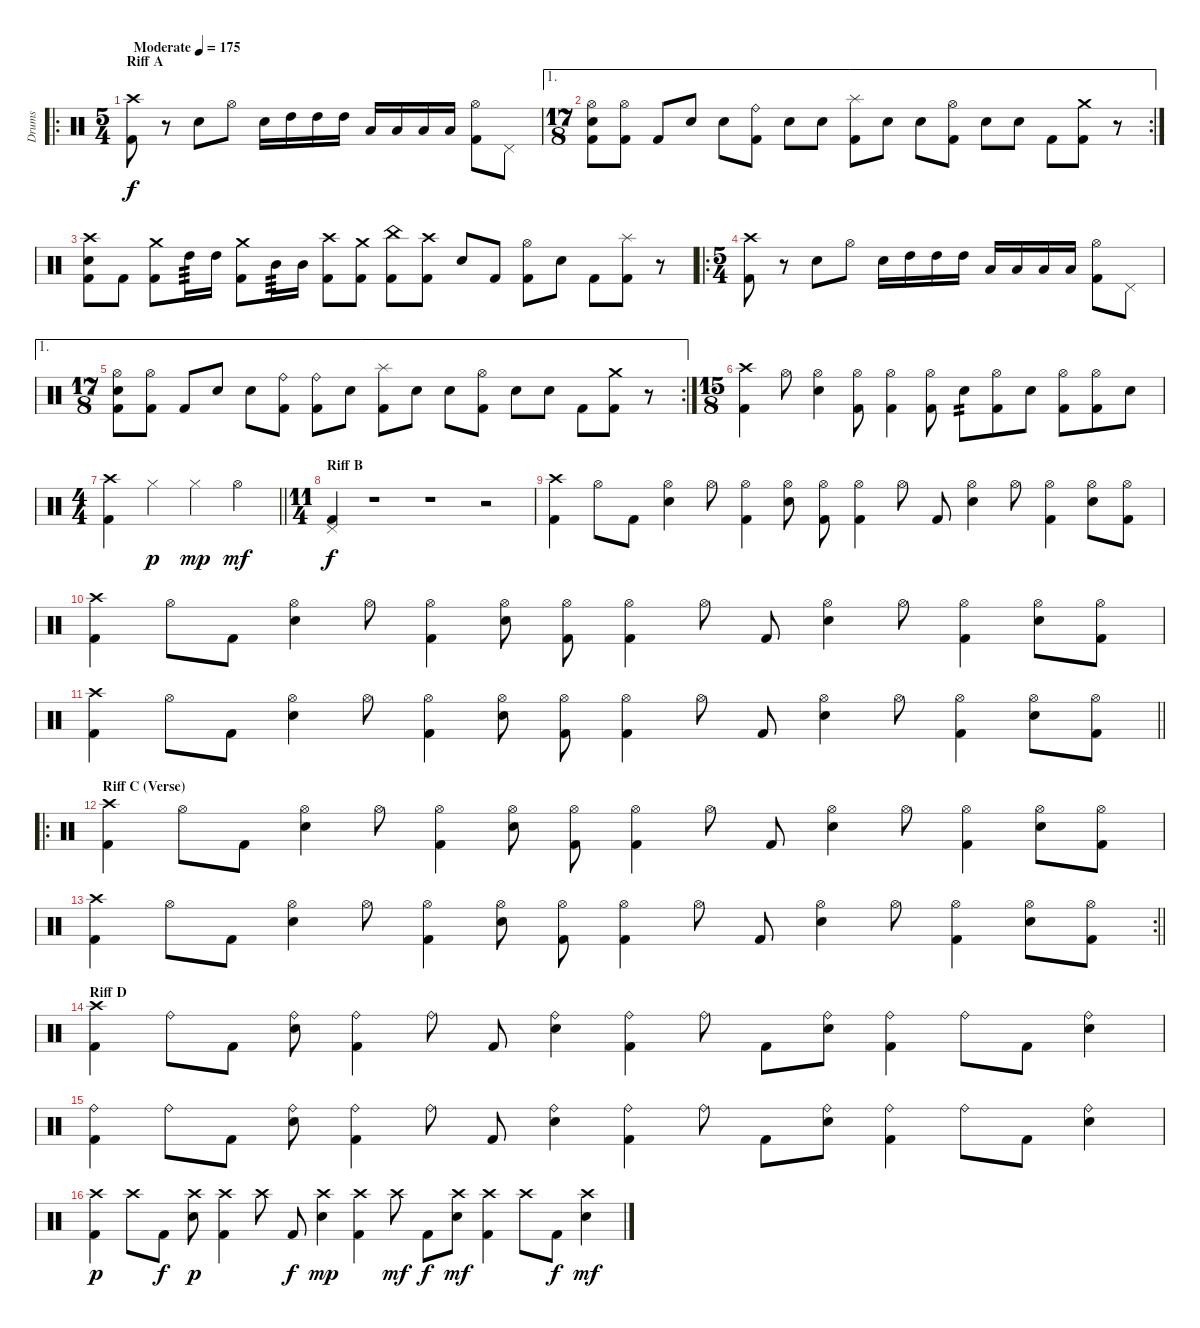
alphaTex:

\track ("Drums" "Drums") {instrument percussion}
\staff {score}
\articulation defaults
\ro
\ts (5 4)
\section ("" "Riff A")
\tempo (175 "Moderate")
\clef neutral
\ks c
("Crash high (hit)" "Kick (hit) 2").8{dy f} r.8 "Snare (hit) 2".8 "Hi-Hat (open)".8 "Snare (hit) 2".16 "High Tom (hit)".16 "High Tom (hit)".16 "High Tom (hit)".16 "Low Tom (hit)".16 "Low Tom (hit)".16 "Low Tom (hit)".16 "Low Tom (hit)".16 ("Kick (hit) 2" "Hi-Hat (open)").8 "Pedal Hi-Hat (hit)".8 |
\ae 1
\rc 2
\ts (17 8)
("Snare (hit) 2" "Hi-Hat (open)" "Kick (hit) 2").8 ("Hi-Hat (open)" "Kick (hit) 2").8 "Kick (hit) 2".8 "Snare (hit) 2".8 "Snare (hit) 2".8 ("Kick (hit) 2" "Ride (bell)").8 "Snare (hit) 2".8 "Snare (hit) 2".8 ("Kick (hit) 2" "Splash (hit)").8 "Snare (hit) 2".8 "Snare (hit) 2".8 ("Kick (hit) 2" "Hi-Hat (open)").8 "Snare (hit) 2".8 "Snare (hit) 2".8 "Kick (hit) 2".8 ("Kick (hit) 2" "Crash medium (hit)").8 r.8 |
("Snare (hit) 2" "Kick (hit) 2" "Crash high (hit)").8 "Kick (hit) 2".8 ("Kick (hit) 2" "Crash medium (hit)").8 "High Tom (hit)".16{tp 3} "High Tom (hit)".16 ("Kick (hit) 2" "Crash medium (hit)").8 "Mid Tom (hit)".16{tp 3} "Mid Tom (hit)".16 ("Kick (hit) 2" "Crash high (hit)").8 ("Kick (hit) 2" "Crash medium (hit)").8 ("Kick (hit) 2" "China (hit)").8 ("Kick (hit) 2" "Crash high (hit)").8 "Snare (hit) 2".8 "Kick (hit) 2".8 ("Kick (hit) 2" "Hi-Hat (open)").8 "Snare (hit) 2".8 "Kick (hit) 2".8 ("Kick (hit) 2" "Splash (hit)").8 r.8 |
\ro
\ts (5 4)
("Crash high (hit)" "Kick (hit) 2").8 r.8 "Snare (hit) 2".8 "Hi-Hat (open)".8 "Snare (hit) 2".16 "High Tom (hit)".16 "High Tom (hit)".16 "High Tom (hit)".16 "Low Tom (hit)".16 "Low Tom (hit)".16 "Low Tom (hit)".16 "Low Tom (hit)".16 ("Kick (hit) 2" "Hi-Hat (open)").8 "Pedal Hi-Hat (hit)".8 |
\ae 1
\rc 2
\ts (17 8)
("Snare (hit) 2" "Hi-Hat (open)" "Kick (hit) 2").8 ("Hi-Hat (open)" "Kick (hit) 2").8 "Kick (hit) 2".8 "Snare (hit) 2".8 "Snare (hit) 2".8 ("Kick (hit) 2" "Ride (bell)").8 ("Kick (hit) 2" "Ride (bell)").8 "Snare (hit) 2".8 ("Kick (hit) 2" "Splash (hit)").8 "Snare (hit) 2".8 "Snare (hit) 2".8 ("Kick (hit) 2" "Hi-Hat (open)").8 "Snare (hit) 2".8 "Snare (hit) 2".8 "Kick (hit) 2".8 ("Kick (hit) 2" "Crash medium (hit)").8 r.8 |
\ts (15 8)
("Kick (hit) 2" "Crash high (hit)").4 "Hi-Hat (open)".8 ("Hi-Hat (open)" "Snare (hit) 2").4 ("Hi-Hat (open)" "Kick (hit) 2").8 ("Kick (hit) 2" "Hi-Hat (open)").4 ("Kick (hit) 2" "Hi-Hat (open)").8 "Snare (hit) 2".8{tp 2} ("Hi-Hat (open)" "Kick (hit) 2").8 "Snare (hit) 2".8 ("Kick (hit) 2" "Hi-Hat (open)").8 ("Hi-Hat (open)" "Kick (hit) 2").8 "Snare (hit) 2".8 |
\ts (4 4)
\barLineRight lightlight
("Kick (hit) 2" "Crash high (hit)").4 "Hi-Hat (closed)".4{dy p} "Hi-Hat (closed)".4{dy mp} "Hi-Hat (open)".4{dy mf} |
\ts (11 4)
\section ("" "Riff B")
("Kick (hit) 2" "Pedal Hi-Hat (hit)").4{dy f} r.1 r.1 r.2 |
("Crash high (hit)" "Kick (hit) 2").4 "Hi-Hat (open)".8 "Kick (hit) 2".8 ("Hi-Hat (open)" "Snare (hit) 2").4 "Hi-Hat (open)".8 ("Hi-Hat (open)" "Kick (hit) 2").4 ("Hi-Hat (open)" "Snare (hit) 2").8 ("Hi-Hat (open)" "Kick (hit) 2").8 ("Hi-Hat (open)" "Kick (hit) 2").4 "Hi-Hat (open)".8 "Kick (hit) 2".8 ("Hi-Hat (open)" "Snare (hit) 2").4 "Hi-Hat (open)".8 ("Hi-Hat (open)" "Kick (hit) 2").4 ("Hi-Hat (open)" "Snare (hit) 2").8 ("Hi-Hat (open)" "Kick (hit) 2").8 |
("Crash high (hit)" "Kick (hit) 2").4 "Hi-Hat (open)".8 "Kick (hit) 2".8 ("Hi-Hat (open)" "Snare (hit) 2").4 "Hi-Hat (open)".8 ("Hi-Hat (open)" "Kick (hit) 2").4 ("Hi-Hat (open)" "Snare (hit) 2").8 ("Hi-Hat (open)" "Kick (hit) 2").8 ("Hi-Hat (open)" "Kick (hit) 2").4 "Hi-Hat (open)".8 "Kick (hit) 2".8 ("Hi-Hat (open)" "Snare (hit) 2").4 "Hi-Hat (open)".8 ("Hi-Hat (open)" "Kick (hit) 2").4 ("Hi-Hat (open)" "Snare (hit) 2").8 ("Hi-Hat (open)" "Kick (hit) 2").8 |
\barLineRight lightlight
("Crash high (hit)" "Kick (hit) 2").4 "Hi-Hat (open)".8 "Kick (hit) 2".8 ("Hi-Hat (open)" "Snare (hit) 2").4 "Hi-Hat (open)".8 ("Hi-Hat (open)" "Kick (hit) 2").4 ("Hi-Hat (open)" "Snare (hit) 2").8 ("Hi-Hat (open)" "Kick (hit) 2").8 ("Hi-Hat (open)" "Kick (hit) 2").4 "Hi-Hat (open)".8 "Kick (hit) 2".8 ("Hi-Hat (open)" "Snare (hit) 2").4 "Hi-Hat (open)".8 ("Hi-Hat (open)" "Kick (hit) 2").4 ("Hi-Hat (open)" "Snare (hit) 2").8 ("Hi-Hat (open)" "Kick (hit) 2").8 |
\ro
\section ("" "Riff C (Verse)")
("Crash high (hit)" "Kick (hit) 2").4 "Hi-Hat (open)".8 "Kick (hit) 2".8 ("Hi-Hat (open)" "Snare (hit) 2").4 "Hi-Hat (open)".8 ("Hi-Hat (open)" "Kick (hit) 2").4 ("Hi-Hat (open)" "Snare (hit) 2").8 ("Hi-Hat (open)" "Kick (hit) 2").8 ("Hi-Hat (open)" "Kick (hit) 2").4 "Hi-Hat (open)".8 "Kick (hit) 2".8 ("Hi-Hat (open)" "Snare (hit) 2").4 "Hi-Hat (open)".8 ("Hi-Hat (open)" "Kick (hit) 2").4 ("Hi-Hat (open)" "Snare (hit) 2").8 ("Hi-Hat (open)" "Kick (hit) 2").8 |
\rc 2
\barLineRight lightlight
("Crash high (hit)" "Kick (hit) 2").4 "Hi-Hat (open)".8 "Kick (hit) 2".8 ("Hi-Hat (open)" "Snare (hit) 2").4 "Hi-Hat (open)".8 ("Hi-Hat (open)" "Kick (hit) 2").4 ("Hi-Hat (open)" "Snare (hit) 2").8 ("Hi-Hat (open)" "Kick (hit) 2").8 ("Hi-Hat (open)" "Kick (hit) 2").4 "Hi-Hat (open)".8 "Kick (hit) 2".8 ("Hi-Hat (open)" "Snare (hit) 2").4 "Hi-Hat (open)".8 ("Hi-Hat (open)" "Kick (hit) 2").4 ("Hi-Hat (open)" "Snare (hit) 2").8 ("Hi-Hat (open)" "Kick (hit) 2").8 |
\section ("" "Riff D")
("Crash high (hit)" "Kick (hit) 2").4 "Ride (bell)".8 "Kick (hit) 2".8 ("Ride (bell)" "Snare (hit) 2").8 ("Ride (bell)" "Kick (hit) 2").4 "Ride (bell)".8 "Kick (hit) 2".8 ("Ride (bell)" "Snare (hit) 2").4 ("Ride (bell)" "Kick (hit) 2").4 "Ride (bell)".8 "Kick (hit) 2".8 ("Ride (bell)" "Snare (hit) 2").8 ("Ride (bell)" "Kick (hit) 2").4 "Ride (bell)".8 "Kick (hit) 2".8 ("Ride (bell)" "Snare (hit) 2").4 |
("Ride (bell)" "Kick (hit) 2").4 "Ride (bell)".8 "Kick (hit) 2".8 ("Ride (bell)" "Snare (hit) 2").8 ("Ride (bell)" "Kick (hit) 2").4 "Ride (bell)".8 "Kick (hit) 2".8 ("Ride (bell)" "Snare (hit) 2").4 ("Ride (bell)" "Kick (hit) 2").4 "Ride (bell)".8 "Kick (hit) 2".8 ("Ride (bell)" "Snare (hit) 2").8 ("Ride (bell)" "Kick (hit) 2").4 "Ride (bell)".8 "Kick (hit) 2".8 ("Ride (bell)" "Snare (hit) 2").4 |
("Crash high (hit)" "Kick (hit) 2").4{dy p} "Crash high (hit)".8 "Kick (hit) 2".8{dy f} ("Crash high (hit)" "Snare (hit) 2").8{dy p} ("Crash high (hit)" "Kick (hit) 2").4 "Crash high (hit)".8 "Kick (hit) 2".8{dy f} ("Crash high (hit)" "Snare (hit) 2").4{dy mp} ("Crash high (hit)" "Kick (hit) 2").4 "Crash high (hit)".8{dy mf} "Kick (hit) 2".8{dy f} ("Crash high (hit)" "Snare (hit) 2").8{dy mf} ("Crash high (hit)" "Kick (hit) 2").4 "Crash high (hit)".8 "Kick (hit) 2".8{dy f} ("Crash high (hit)" "Snare (hit) 2").4{dy mf}
